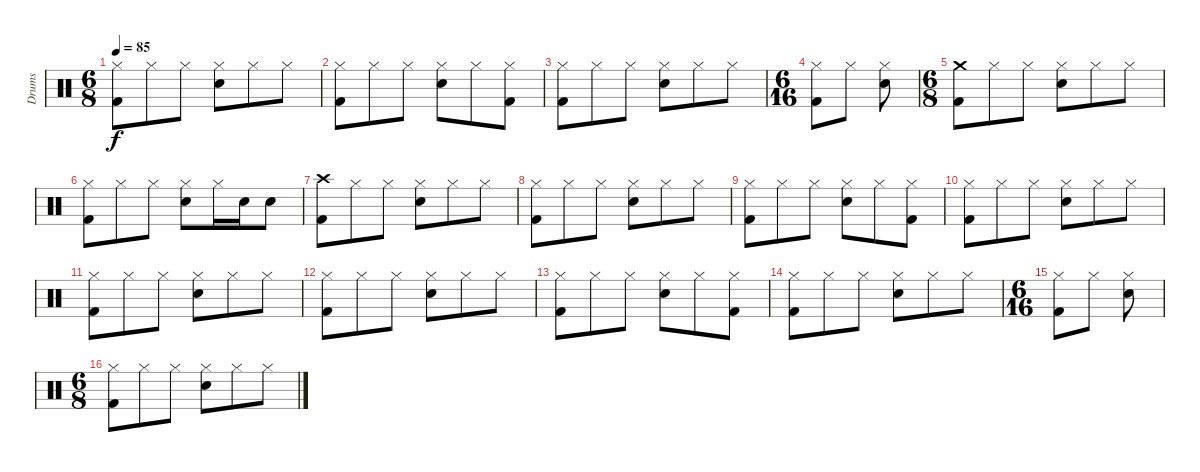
\track ("Drums" "Drums") {instrument percussion}
\staff {score}
\articulation defaults
\ts (6 8)
\tempo 85
\clef neutral
\ks c
("Hi-Hat (closed)" "Kick (hit) 2").8{dy f} "Hi-Hat (closed)".8 "Hi-Hat (closed)".8 ("Hi-Hat (closed)" "Snare (hit) 2").8 "Hi-Hat (closed)".8 "Hi-Hat (closed)".8 |
("Hi-Hat (closed)" "Kick (hit) 2").8 "Hi-Hat (closed)".8 "Hi-Hat (closed)".8 ("Hi-Hat (closed)" "Snare (hit) 2").8 "Hi-Hat (closed)".8 ("Hi-Hat (closed)" "Kick (hit) 2").8 |
("Hi-Hat (closed)" "Kick (hit) 2").8 "Hi-Hat (closed)".8 "Hi-Hat (closed)".8 ("Hi-Hat (closed)" "Snare (hit) 2").8 "Hi-Hat (closed)".8 "Hi-Hat (closed)".8 |
\ts (6 16)
("Hi-Hat (closed)" "Kick (hit) 2").8 "Hi-Hat (closed)".8 ("Hi-Hat (closed)" "Snare (hit) 2").8 |
\ts (6 8)
("Crash medium (hit)" "Kick (hit) 2").8 "Hi-Hat (closed)".8 "Hi-Hat (closed)".8 ("Hi-Hat (closed)" "Snare (hit) 2").8 "Hi-Hat (closed)".8 "Hi-Hat (closed)".8 |
("Hi-Hat (closed)" "Kick (hit) 2").8 "Hi-Hat (closed)".8 "Hi-Hat (closed)".8 ("Hi-Hat (closed)" "Snare (hit) 2").8 "Hi-Hat (closed)".16 "Snare (hit) 2".16 "Snare (hit) 2".8 |
("Crash high (hit)" "Kick (hit) 2").8 "Hi-Hat (closed)".8 "Hi-Hat (closed)".8 ("Hi-Hat (closed)" "Snare (hit) 2").8 "Hi-Hat (closed)".8 "Hi-Hat (closed)".8 |
("Hi-Hat (closed)" "Kick (hit) 2").8 "Hi-Hat (closed)".8 "Hi-Hat (closed)".8 ("Hi-Hat (closed)" "Snare (hit) 2").8 "Hi-Hat (closed)".8 "Hi-Hat (closed)".8 |
("Hi-Hat (closed)" "Kick (hit) 2").8 "Hi-Hat (closed)".8 "Hi-Hat (closed)".8 ("Hi-Hat (closed)" "Snare (hit) 2").8 "Hi-Hat (closed)".8 ("Hi-Hat (closed)" "Kick (hit) 2").8 |
("Hi-Hat (closed)" "Kick (hit) 2").8 "Hi-Hat (closed)".8 "Hi-Hat (closed)".8 ("Hi-Hat (closed)" "Snare (hit) 2").8 "Hi-Hat (closed)".8 "Hi-Hat (closed)".8 |
("Hi-Hat (closed)" "Kick (hit) 2").8 "Hi-Hat (closed)".8 "Hi-Hat (closed)".8 ("Hi-Hat (closed)" "Snare (hit) 2").8 "Hi-Hat (closed)".8 "Hi-Hat (closed)".8 |
("Hi-Hat (closed)" "Kick (hit) 2").8 "Hi-Hat (closed)".8 "Hi-Hat (closed)".8 ("Hi-Hat (closed)" "Snare (hit) 2").8 "Hi-Hat (closed)".8 "Hi-Hat (closed)".8 |
("Hi-Hat (closed)" "Kick (hit) 2").8 "Hi-Hat (closed)".8 "Hi-Hat (closed)".8 ("Hi-Hat (closed)" "Snare (hit) 2").8 "Hi-Hat (closed)".8 ("Hi-Hat (closed)" "Kick (hit) 2").8 |
("Hi-Hat (closed)" "Kick (hit) 2").8 "Hi-Hat (closed)".8 "Hi-Hat (closed)".8 ("Hi-Hat (closed)" "Snare (hit) 2").8 "Hi-Hat (closed)".8 "Hi-Hat (closed)".8 |
\ts (6 16)
("Hi-Hat (closed)" "Kick (hit) 2").8 "Hi-Hat (closed)".8 ("Hi-Hat (closed)" "Snare (hit) 2").8 |
\ts (6 8)
("Hi-Hat (closed)" "Kick (hit) 2").8 "Hi-Hat (closed)".8 "Hi-Hat (closed)".8 ("Hi-Hat (closed)" "Snare (hit) 2").8 "Hi-Hat (closed)".8 "Hi-Hat (closed)".8
